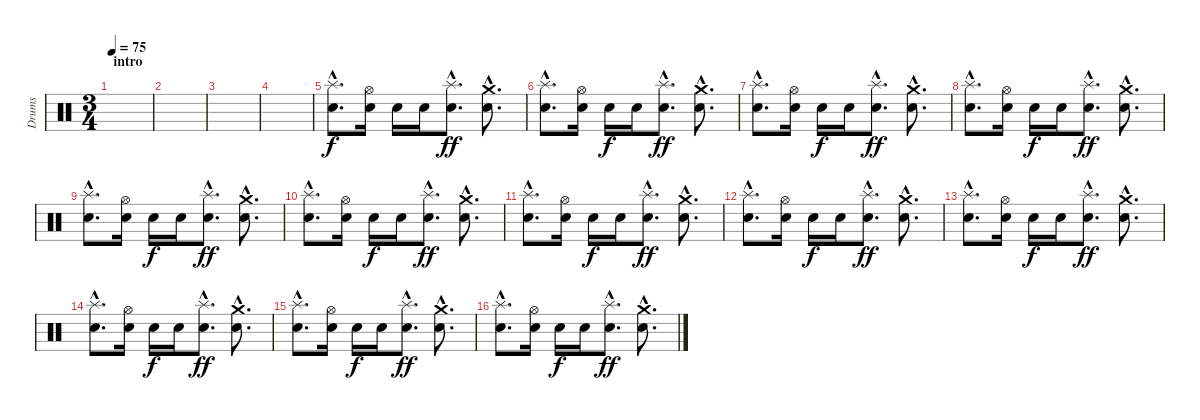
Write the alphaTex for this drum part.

\track ("Drums" "Drums") {instrument percussion}
\staff {score}
\articulation defaults
\ts (3 4)
\section ("" "intro")
\tempo 75
\clef neutral
\ks c
|
|
|
|
("Splash (hit)"{hac} "Snare (hit) 2"{hac}).8{d} ("Hi-Hat (open)" "Electric Snare (hit)").16 "Electric Snare (hit)".16{dy f} "Electric Snare (hit)".16 ("Splash (hit)"{hac} "Snare (hit) 2"{hac}).8{d dy ff} ("Crash medium (hit)"{hac} "Electric Snare (hit)"{hac}).8{d} |
("Splash (hit)"{hac} "Snare (hit) 2"{hac}).8{d} ("Hi-Hat (open)" "Electric Snare (hit)").16 "Electric Snare (hit)".16{dy f} "Electric Snare (hit)".16 ("Splash (hit)"{hac} "Snare (hit) 2"{hac}).8{d dy ff} ("Crash medium (hit)"{hac} "Electric Snare (hit)"{hac}).8{d} |
("Splash (hit)"{hac} "Snare (hit) 2"{hac}).8{d} ("Hi-Hat (open)" "Electric Snare (hit)").16 "Electric Snare (hit)".16{dy f} "Electric Snare (hit)".16 ("Splash (hit)"{hac} "Snare (hit) 2"{hac}).8{d dy ff} ("Crash medium (hit)"{hac} "Electric Snare (hit)"{hac}).8{d} |
("Splash (hit)"{hac} "Snare (hit) 2"{hac}).8{d} ("Hi-Hat (open)" "Electric Snare (hit)").16 "Electric Snare (hit)".16{dy f} "Electric Snare (hit)".16 ("Splash (hit)"{hac} "Snare (hit) 2"{hac}).8{d dy ff} ("Crash medium (hit)"{hac} "Electric Snare (hit)"{hac}).8{d} |
("Splash (hit)"{hac} "Snare (hit) 2"{hac}).8{d} ("Hi-Hat (open)" "Electric Snare (hit)").16 "Electric Snare (hit)".16{dy f} "Electric Snare (hit)".16 ("Splash (hit)"{hac} "Snare (hit) 2"{hac}).8{d dy ff} ("Crash medium (hit)"{hac} "Electric Snare (hit)"{hac}).8{d} |
("Splash (hit)"{hac} "Snare (hit) 2"{hac}).8{d} ("Hi-Hat (open)" "Electric Snare (hit)").16 "Electric Snare (hit)".16{dy f} "Electric Snare (hit)".16 ("Splash (hit)"{hac} "Snare (hit) 2"{hac}).8{d dy ff} ("Crash medium (hit)"{hac} "Electric Snare (hit)"{hac}).8{d} |
("Splash (hit)"{hac} "Snare (hit) 2"{hac}).8{d} ("Hi-Hat (open)" "Electric Snare (hit)").16 "Electric Snare (hit)".16{dy f} "Electric Snare (hit)".16 ("Splash (hit)"{hac} "Snare (hit) 2"{hac}).8{d dy ff} ("Crash medium (hit)"{hac} "Electric Snare (hit)"{hac}).8{d} |
("Splash (hit)"{hac} "Snare (hit) 2"{hac}).8{d} ("Hi-Hat (open)" "Electric Snare (hit)").16 "Electric Snare (hit)".16{dy f} "Electric Snare (hit)".16 ("Splash (hit)"{hac} "Snare (hit) 2"{hac}).8{d dy ff} ("Crash medium (hit)"{hac} "Electric Snare (hit)"{hac}).8{d} |
("Splash (hit)"{hac} "Snare (hit) 2"{hac}).8{d} ("Hi-Hat (open)" "Electric Snare (hit)").16 "Electric Snare (hit)".16{dy f} "Electric Snare (hit)".16 ("Splash (hit)"{hac} "Snare (hit) 2"{hac}).8{d dy ff} ("Crash medium (hit)"{hac} "Electric Snare (hit)"{hac}).8{d} |
("Splash (hit)"{hac} "Snare (hit) 2"{hac}).8{d} ("Hi-Hat (open)" "Electric Snare (hit)").16 "Electric Snare (hit)".16{dy f} "Electric Snare (hit)".16 ("Splash (hit)"{hac} "Snare (hit) 2"{hac}).8{d dy ff} ("Crash medium (hit)"{hac} "Electric Snare (hit)"{hac}).8{d} |
("Splash (hit)"{hac} "Snare (hit) 2"{hac}).8{d} ("Hi-Hat (open)" "Electric Snare (hit)").16 "Electric Snare (hit)".16{dy f} "Electric Snare (hit)".16 ("Splash (hit)"{hac} "Snare (hit) 2"{hac}).8{d dy ff} ("Crash medium (hit)"{hac} "Electric Snare (hit)"{hac}).8{d} |
("Splash (hit)"{hac} "Snare (hit) 2"{hac}).8{d} ("Hi-Hat (open)" "Electric Snare (hit)").16 "Electric Snare (hit)".16{dy f} "Electric Snare (hit)".16 ("Splash (hit)"{hac} "Snare (hit) 2"{hac}).8{d dy ff} ("Crash medium (hit)"{hac} "Electric Snare (hit)"{hac}).8{d}
